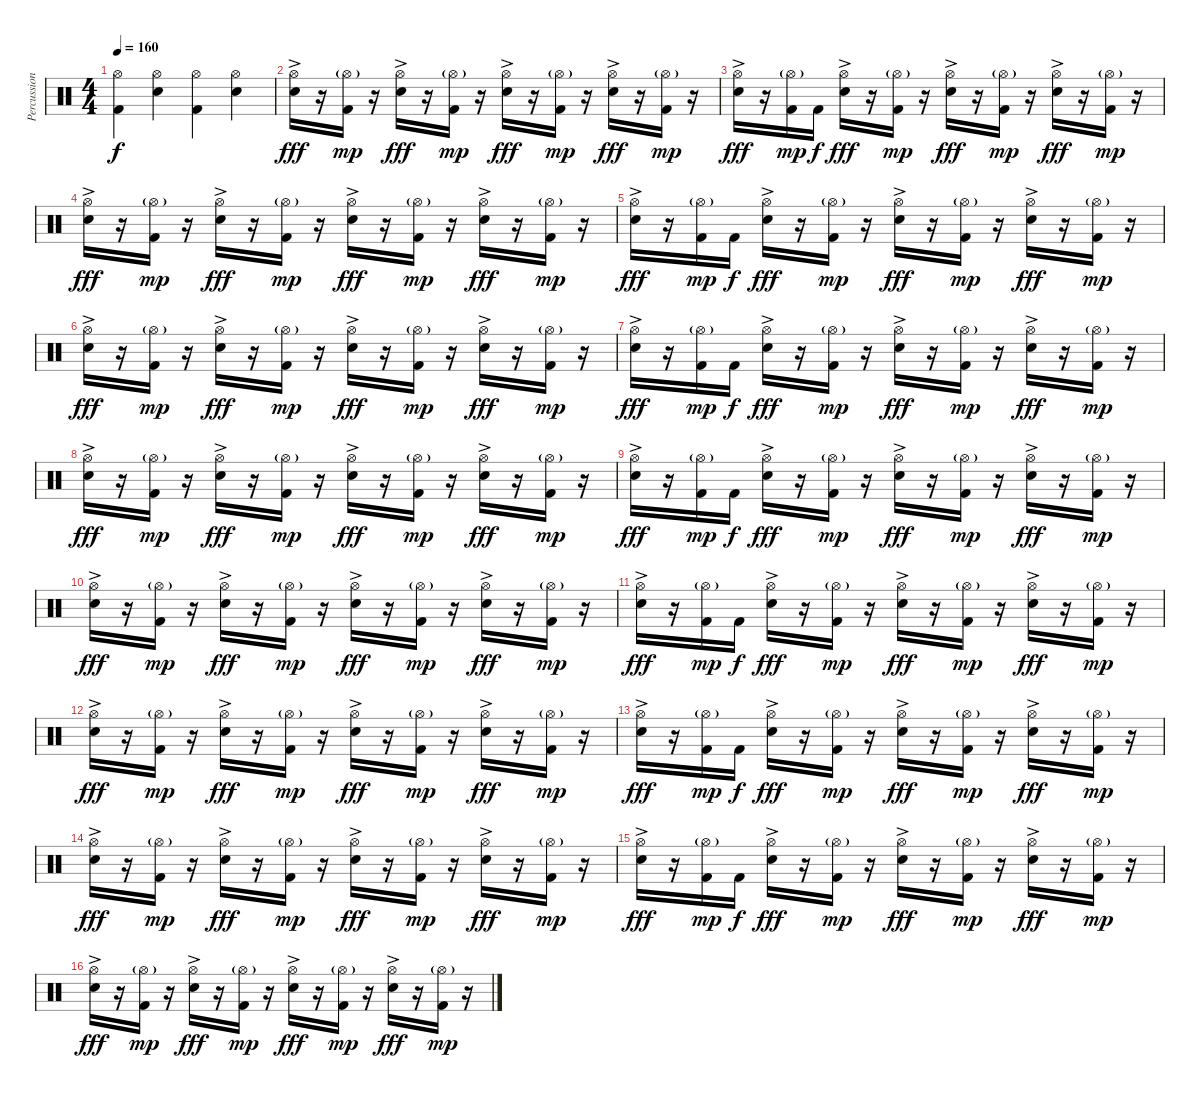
\track ("Percussioni" "Percussion") {instrument percussion}
\staff {score}
\articulation defaults
\ts (4 4)
\tempo 160
\clef neutral
\ks c
("Kick (hit) 2" "Hi-Hat (open)").4{dy f} ("Hi-Hat (open)" "Electric Snare (hit)").4 ("Kick (hit) 2" "Hi-Hat (open)").4 ("Hi-Hat (open)" "Electric Snare (hit)").4 |
("Hi-Hat (open)"{ac} "Electric Snare (hit)").16{dy fff} r.16 ("Hi-Hat (open)"{g} "Kick (hit) 2").16{dy mp} r.16 ("Hi-Hat (open)"{ac} "Electric Snare (hit)").16{dy fff} r.16 ("Hi-Hat (open)"{g} "Kick (hit) 2").16{dy mp} r.16 ("Hi-Hat (open)"{ac} "Electric Snare (hit)").16{dy fff} r.16 ("Hi-Hat (open)"{g} "Kick (hit) 2").16{dy mp} r.16 ("Hi-Hat (open)"{ac} "Electric Snare (hit)").16{dy fff} r.16 ("Hi-Hat (open)"{g} "Kick (hit) 2").16{dy mp} r.16 |
("Hi-Hat (open)"{ac} "Electric Snare (hit)").16{dy fff} r.16 ("Hi-Hat (open)"{g} "Kick (hit) 2").16{dy mp} "Kick (hit) 2".16{dy f} ("Hi-Hat (open)"{ac} "Electric Snare (hit)").16{dy fff} r.16 ("Hi-Hat (open)"{g} "Kick (hit) 2").16{dy mp} r.16 ("Hi-Hat (open)"{ac} "Electric Snare (hit)").16{dy fff} r.16 ("Hi-Hat (open)"{g} "Kick (hit) 2").16{dy mp} r.16 ("Hi-Hat (open)"{ac} "Electric Snare (hit)").16{dy fff} r.16 ("Hi-Hat (open)"{g} "Kick (hit) 2").16{dy mp} r.16 |
("Hi-Hat (open)"{ac} "Electric Snare (hit)").16{dy fff} r.16 ("Hi-Hat (open)"{g} "Kick (hit) 2").16{dy mp} r.16 ("Hi-Hat (open)"{ac} "Electric Snare (hit)").16{dy fff} r.16 ("Hi-Hat (open)"{g} "Kick (hit) 2").16{dy mp} r.16 ("Hi-Hat (open)"{ac} "Electric Snare (hit)").16{dy fff} r.16 ("Hi-Hat (open)"{g} "Kick (hit) 2").16{dy mp} r.16 ("Hi-Hat (open)"{ac} "Electric Snare (hit)").16{dy fff} r.16 ("Hi-Hat (open)"{g} "Kick (hit) 2").16{dy mp} r.16 |
("Hi-Hat (open)"{ac} "Electric Snare (hit)").16{dy fff} r.16 ("Hi-Hat (open)"{g} "Kick (hit) 2").16{dy mp} "Kick (hit) 2".16{dy f} ("Hi-Hat (open)"{ac} "Electric Snare (hit)").16{dy fff} r.16 ("Hi-Hat (open)"{g} "Kick (hit) 2").16{dy mp} r.16 ("Hi-Hat (open)"{ac} "Electric Snare (hit)").16{dy fff} r.16 ("Hi-Hat (open)"{g} "Kick (hit) 2").16{dy mp} r.16 ("Hi-Hat (open)"{ac} "Electric Snare (hit)").16{dy fff} r.16 ("Hi-Hat (open)"{g} "Kick (hit) 2").16{dy mp} r.16 |
("Hi-Hat (open)"{ac} "Electric Snare (hit)").16{dy fff} r.16 ("Hi-Hat (open)"{g} "Kick (hit) 2").16{dy mp} r.16 ("Hi-Hat (open)"{ac} "Electric Snare (hit)").16{dy fff} r.16 ("Hi-Hat (open)"{g} "Kick (hit) 2").16{dy mp} r.16 ("Hi-Hat (open)"{ac} "Electric Snare (hit)").16{dy fff} r.16 ("Hi-Hat (open)"{g} "Kick (hit) 2").16{dy mp} r.16 ("Hi-Hat (open)"{ac} "Electric Snare (hit)").16{dy fff} r.16 ("Hi-Hat (open)"{g} "Kick (hit) 2").16{dy mp} r.16 |
("Hi-Hat (open)"{ac} "Electric Snare (hit)").16{dy fff} r.16 ("Hi-Hat (open)"{g} "Kick (hit) 2").16{dy mp} "Kick (hit) 2".16{dy f} ("Hi-Hat (open)"{ac} "Electric Snare (hit)").16{dy fff} r.16 ("Hi-Hat (open)"{g} "Kick (hit) 2").16{dy mp} r.16 ("Hi-Hat (open)"{ac} "Electric Snare (hit)").16{dy fff} r.16 ("Hi-Hat (open)"{g} "Kick (hit) 2").16{dy mp} r.16 ("Hi-Hat (open)"{ac} "Electric Snare (hit)").16{dy fff} r.16 ("Hi-Hat (open)"{g} "Kick (hit) 2").16{dy mp} r.16 |
("Hi-Hat (open)"{ac} "Electric Snare (hit)").16{dy fff} r.16 ("Hi-Hat (open)"{g} "Kick (hit) 2").16{dy mp} r.16 ("Hi-Hat (open)"{ac} "Electric Snare (hit)").16{dy fff} r.16 ("Hi-Hat (open)"{g} "Kick (hit) 2").16{dy mp} r.16 ("Hi-Hat (open)"{ac} "Electric Snare (hit)").16{dy fff} r.16 ("Hi-Hat (open)"{g} "Kick (hit) 2").16{dy mp} r.16 ("Hi-Hat (open)"{ac} "Electric Snare (hit)").16{dy fff} r.16 ("Hi-Hat (open)"{g} "Kick (hit) 2").16{dy mp} r.16 |
("Hi-Hat (open)"{ac} "Electric Snare (hit)").16{dy fff} r.16 ("Hi-Hat (open)"{g} "Kick (hit) 2").16{dy mp} "Kick (hit) 2".16{dy f} ("Hi-Hat (open)"{ac} "Electric Snare (hit)").16{dy fff} r.16 ("Hi-Hat (open)"{g} "Kick (hit) 2").16{dy mp} r.16 ("Hi-Hat (open)"{ac} "Electric Snare (hit)").16{dy fff} r.16 ("Hi-Hat (open)"{g} "Kick (hit) 2").16{dy mp} r.16 ("Hi-Hat (open)"{ac} "Electric Snare (hit)").16{dy fff} r.16 ("Hi-Hat (open)"{g} "Kick (hit) 2").16{dy mp} r.16 |
("Hi-Hat (open)"{ac} "Electric Snare (hit)").16{dy fff} r.16 ("Hi-Hat (open)"{g} "Kick (hit) 2").16{dy mp} r.16 ("Hi-Hat (open)"{ac} "Electric Snare (hit)").16{dy fff} r.16 ("Hi-Hat (open)"{g} "Kick (hit) 2").16{dy mp} r.16 ("Hi-Hat (open)"{ac} "Electric Snare (hit)").16{dy fff} r.16 ("Hi-Hat (open)"{g} "Kick (hit) 2").16{dy mp} r.16 ("Hi-Hat (open)"{ac} "Electric Snare (hit)").16{dy fff} r.16 ("Hi-Hat (open)"{g} "Kick (hit) 2").16{dy mp} r.16 |
("Hi-Hat (open)"{ac} "Electric Snare (hit)").16{dy fff} r.16 ("Hi-Hat (open)"{g} "Kick (hit) 2").16{dy mp} "Kick (hit) 2".16{dy f} ("Hi-Hat (open)"{ac} "Electric Snare (hit)").16{dy fff} r.16 ("Hi-Hat (open)"{g} "Kick (hit) 2").16{dy mp} r.16 ("Hi-Hat (open)"{ac} "Electric Snare (hit)").16{dy fff} r.16 ("Hi-Hat (open)"{g} "Kick (hit) 2").16{dy mp} r.16 ("Hi-Hat (open)"{ac} "Electric Snare (hit)").16{dy fff} r.16 ("Hi-Hat (open)"{g} "Kick (hit) 2").16{dy mp} r.16 |
("Hi-Hat (open)"{ac} "Electric Snare (hit)").16{dy fff} r.16 ("Hi-Hat (open)"{g} "Kick (hit) 2").16{dy mp} r.16 ("Hi-Hat (open)"{ac} "Electric Snare (hit)").16{dy fff} r.16 ("Hi-Hat (open)"{g} "Kick (hit) 2").16{dy mp} r.16 ("Hi-Hat (open)"{ac} "Electric Snare (hit)").16{dy fff} r.16 ("Hi-Hat (open)"{g} "Kick (hit) 2").16{dy mp} r.16 ("Hi-Hat (open)"{ac} "Electric Snare (hit)").16{dy fff} r.16 ("Hi-Hat (open)"{g} "Kick (hit) 2").16{dy mp} r.16 |
("Hi-Hat (open)"{ac} "Electric Snare (hit)").16{dy fff} r.16 ("Hi-Hat (open)"{g} "Kick (hit) 2").16{dy mp} "Kick (hit) 2".16{dy f} ("Hi-Hat (open)"{ac} "Electric Snare (hit)").16{dy fff} r.16 ("Hi-Hat (open)"{g} "Kick (hit) 2").16{dy mp} r.16 ("Hi-Hat (open)"{ac} "Electric Snare (hit)").16{dy fff} r.16 ("Hi-Hat (open)"{g} "Kick (hit) 2").16{dy mp} r.16 ("Hi-Hat (open)"{ac} "Electric Snare (hit)").16{dy fff} r.16 ("Hi-Hat (open)"{g} "Kick (hit) 2").16{dy mp} r.16 |
("Hi-Hat (open)"{ac} "Electric Snare (hit)").16{dy fff} r.16 ("Hi-Hat (open)"{g} "Kick (hit) 2").16{dy mp} r.16 ("Hi-Hat (open)"{ac} "Electric Snare (hit)").16{dy fff} r.16 ("Hi-Hat (open)"{g} "Kick (hit) 2").16{dy mp} r.16 ("Hi-Hat (open)"{ac} "Electric Snare (hit)").16{dy fff} r.16 ("Hi-Hat (open)"{g} "Kick (hit) 2").16{dy mp} r.16 ("Hi-Hat (open)"{ac} "Electric Snare (hit)").16{dy fff} r.16 ("Hi-Hat (open)"{g} "Kick (hit) 2").16{dy mp} r.16 |
("Hi-Hat (open)"{ac} "Electric Snare (hit)").16{dy fff} r.16 ("Hi-Hat (open)"{g} "Kick (hit) 2").16{dy mp} "Kick (hit) 2".16{dy f} ("Hi-Hat (open)"{ac} "Electric Snare (hit)").16{dy fff} r.16 ("Hi-Hat (open)"{g} "Kick (hit) 2").16{dy mp} r.16 ("Hi-Hat (open)"{ac} "Electric Snare (hit)").16{dy fff} r.16 ("Hi-Hat (open)"{g} "Kick (hit) 2").16{dy mp} r.16 ("Hi-Hat (open)"{ac} "Electric Snare (hit)").16{dy fff} r.16 ("Hi-Hat (open)"{g} "Kick (hit) 2").16{dy mp} r.16 |
("Hi-Hat (open)"{ac} "Electric Snare (hit)").16{dy fff} r.16 ("Hi-Hat (open)"{g} "Kick (hit) 2").16{dy mp} r.16 ("Hi-Hat (open)"{ac} "Electric Snare (hit)").16{dy fff} r.16 ("Hi-Hat (open)"{g} "Kick (hit) 2").16{dy mp} r.16 ("Hi-Hat (open)"{ac} "Electric Snare (hit)").16{dy fff} r.16 ("Hi-Hat (open)"{g} "Kick (hit) 2").16{dy mp} r.16 ("Hi-Hat (open)"{ac} "Electric Snare (hit)").16{dy fff} r.16 ("Hi-Hat (open)"{g} "Kick (hit) 2").16{dy mp} r.16
